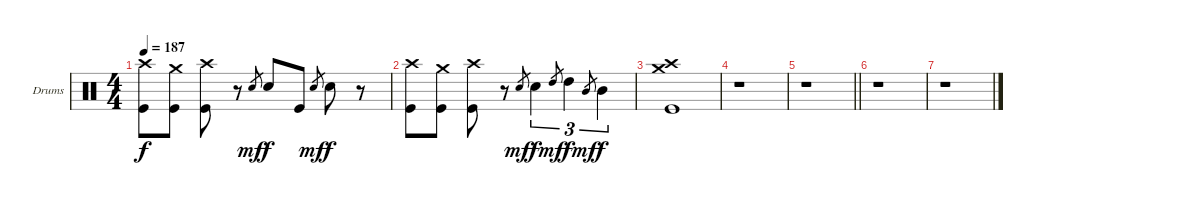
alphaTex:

\bracketExtendMode groupsimilarinstruments
\firstSystemTrackNameOrientation horizontal
\otherSystemsTrackNameOrientation horizontal
\track ("Rian Dawson" "Drums") {instrument percussion}
\staff {score}
\articulation defaults
\ts (4 4)
\tempo 187
\clef neutral
\ks c
("Crash high (hit)" "Kick (hit)").8{dy f} ("Crash medium (hit)" "Kick (hit)").8 ("Crash high (hit)" "Kick (hit)").8 r.8 "Snare (hit) 2".8{gr dy mf} "Snare (hit) 2".8{dy f} "Kick (hit)".8 "Snare (hit) 2".8{gr dy mf} "Snare (hit) 2".8{dy f} r.8 |
("Crash high (hit)" "Kick (hit)").8 ("Crash medium (hit)" "Kick (hit)").8 ("Crash high (hit)" "Kick (hit)").8 r.8 "Snare (hit) 2".8{gr dy mf} "Snare (hit) 2".4{tu (3 2) dy f} "High Tom (hit)".8{gr dy mf} "High Tom (hit)".4{tu (3 2) dy f} "Mid Tom (hit)".8{gr dy mf} "Mid Tom (hit)".4{tu (3 2) dy f} |
("Crash medium (hit)" "Crash high (hit)" "Kick (hit)").1 |
r.1 |
\barLineRight lightlight
r.1 |
r.1 |
r.1
